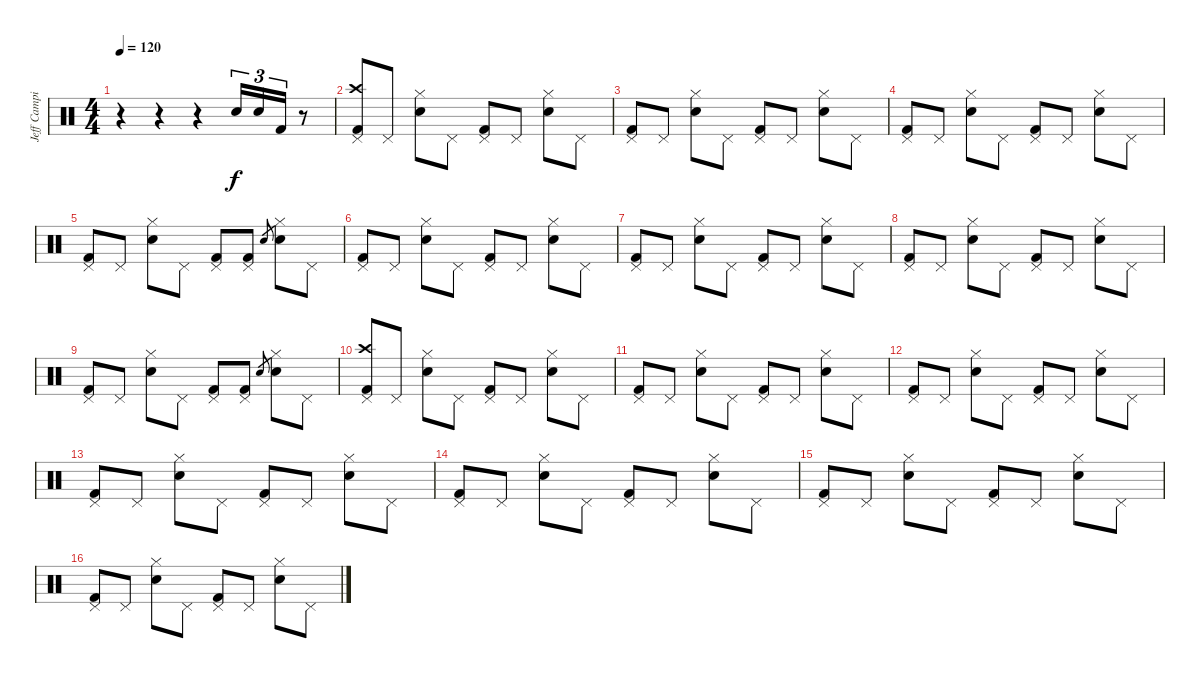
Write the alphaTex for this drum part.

\track ("Jeff Campitelli" "Jeff Campi") {instrument percussion}
\staff {score}
\articulation defaults
\ts (4 4)
\tempo 120
\clef neutral
\ks c
r.4{dy f} r.4 r.4 "Snare (hit) 2".16{tu (3 2)} "Snare (hit) 2".16{tu (3 2)} "Kick (hit) 2".16{tu (3 2)} r.8 |
("Crash high (hit)" "Pedal Hi-Hat (hit)" "Kick (hit) 2").8 "Pedal Hi-Hat (hit)".8 ("Hi-Hat (closed)" "Snare (hit) 2").8 "Pedal Hi-Hat (hit)".8 ("Pedal Hi-Hat (hit)" "Kick (hit) 2").8 "Pedal Hi-Hat (hit)".8 ("Hi-Hat (closed)" "Snare (hit) 2").8 "Pedal Hi-Hat (hit)".8 |
("Pedal Hi-Hat (hit)" "Kick (hit) 2").8 "Pedal Hi-Hat (hit)".8 ("Hi-Hat (closed)" "Snare (hit) 2").8 "Pedal Hi-Hat (hit)".8 ("Pedal Hi-Hat (hit)" "Kick (hit) 2").8 "Pedal Hi-Hat (hit)".8 ("Hi-Hat (closed)" "Snare (hit) 2").8 "Pedal Hi-Hat (hit)".8 |
("Pedal Hi-Hat (hit)" "Kick (hit) 2").8 "Pedal Hi-Hat (hit)".8 ("Hi-Hat (closed)" "Snare (hit) 2").8 "Pedal Hi-Hat (hit)".8 ("Pedal Hi-Hat (hit)" "Kick (hit) 2").8 "Pedal Hi-Hat (hit)".8 ("Hi-Hat (closed)" "Snare (hit) 2").8 "Pedal Hi-Hat (hit)".8 |
("Pedal Hi-Hat (hit)" "Kick (hit) 2").8 "Pedal Hi-Hat (hit)".8 ("Hi-Hat (closed)" "Snare (hit) 2").8 "Pedal Hi-Hat (hit)".8 ("Pedal Hi-Hat (hit)" "Kick (hit) 2").8 ("Pedal Hi-Hat (hit)" "Kick (hit) 2").8 "Snare (hit) 2".8{gr} ("Hi-Hat (closed)" "Snare (hit) 2").8 "Pedal Hi-Hat (hit)".8 |
("Pedal Hi-Hat (hit)" "Kick (hit) 2").8 "Pedal Hi-Hat (hit)".8 ("Hi-Hat (closed)" "Snare (hit) 2").8 "Pedal Hi-Hat (hit)".8 ("Pedal Hi-Hat (hit)" "Kick (hit) 2").8 "Pedal Hi-Hat (hit)".8 ("Hi-Hat (closed)" "Snare (hit) 2").8 "Pedal Hi-Hat (hit)".8 |
("Pedal Hi-Hat (hit)" "Kick (hit) 2").8 "Pedal Hi-Hat (hit)".8 ("Hi-Hat (closed)" "Snare (hit) 2").8 "Pedal Hi-Hat (hit)".8 ("Pedal Hi-Hat (hit)" "Kick (hit) 2").8 "Pedal Hi-Hat (hit)".8 ("Hi-Hat (closed)" "Snare (hit) 2").8 "Pedal Hi-Hat (hit)".8 |
("Pedal Hi-Hat (hit)" "Kick (hit) 2").8 "Pedal Hi-Hat (hit)".8 ("Hi-Hat (closed)" "Snare (hit) 2").8 "Pedal Hi-Hat (hit)".8 ("Pedal Hi-Hat (hit)" "Kick (hit) 2").8 "Pedal Hi-Hat (hit)".8 ("Hi-Hat (closed)" "Snare (hit) 2").8 "Pedal Hi-Hat (hit)".8 |
("Pedal Hi-Hat (hit)" "Kick (hit) 2").8 "Pedal Hi-Hat (hit)".8 ("Hi-Hat (closed)" "Snare (hit) 2").8 "Pedal Hi-Hat (hit)".8 ("Pedal Hi-Hat (hit)" "Kick (hit) 2").8 ("Pedal Hi-Hat (hit)" "Kick (hit) 2").8 "Snare (hit) 2".8{gr} ("Hi-Hat (closed)" "Snare (hit) 2").8 "Pedal Hi-Hat (hit)".8 |
("Crash high (hit)" "Pedal Hi-Hat (hit)" "Kick (hit) 2").8 "Pedal Hi-Hat (hit)".8 ("Hi-Hat (closed)" "Snare (hit) 2").8 "Pedal Hi-Hat (hit)".8 ("Pedal Hi-Hat (hit)" "Kick (hit) 2").8 "Pedal Hi-Hat (hit)".8 ("Hi-Hat (closed)" "Snare (hit) 2").8 "Pedal Hi-Hat (hit)".8 |
("Pedal Hi-Hat (hit)" "Kick (hit) 2").8 "Pedal Hi-Hat (hit)".8 ("Hi-Hat (closed)" "Snare (hit) 2").8 "Pedal Hi-Hat (hit)".8 ("Pedal Hi-Hat (hit)" "Kick (hit) 2").8 "Pedal Hi-Hat (hit)".8 ("Hi-Hat (closed)" "Snare (hit) 2").8 "Pedal Hi-Hat (hit)".8 |
("Pedal Hi-Hat (hit)" "Kick (hit) 2").8 "Pedal Hi-Hat (hit)".8 ("Hi-Hat (closed)" "Snare (hit) 2").8 "Pedal Hi-Hat (hit)".8 ("Pedal Hi-Hat (hit)" "Kick (hit) 2").8 "Pedal Hi-Hat (hit)".8 ("Hi-Hat (closed)" "Snare (hit) 2").8 "Pedal Hi-Hat (hit)".8 |
("Pedal Hi-Hat (hit)" "Kick (hit) 2").8 "Pedal Hi-Hat (hit)".8 ("Hi-Hat (closed)" "Snare (hit) 2").8 "Pedal Hi-Hat (hit)".8 ("Pedal Hi-Hat (hit)" "Kick (hit) 2").8 "Pedal Hi-Hat (hit)".8 ("Hi-Hat (closed)" "Snare (hit) 2").8 "Pedal Hi-Hat (hit)".8 |
("Pedal Hi-Hat (hit)" "Kick (hit) 2").8 "Pedal Hi-Hat (hit)".8 ("Hi-Hat (closed)" "Snare (hit) 2").8 "Pedal Hi-Hat (hit)".8 ("Pedal Hi-Hat (hit)" "Kick (hit) 2").8 "Pedal Hi-Hat (hit)".8 ("Hi-Hat (closed)" "Snare (hit) 2").8 "Pedal Hi-Hat (hit)".8 |
("Pedal Hi-Hat (hit)" "Kick (hit) 2").8 "Pedal Hi-Hat (hit)".8 ("Hi-Hat (closed)" "Snare (hit) 2").8 "Pedal Hi-Hat (hit)".8 ("Pedal Hi-Hat (hit)" "Kick (hit) 2").8 "Pedal Hi-Hat (hit)".8 ("Hi-Hat (closed)" "Snare (hit) 2").8 "Pedal Hi-Hat (hit)".8 |
("Pedal Hi-Hat (hit)" "Kick (hit) 2").8 "Pedal Hi-Hat (hit)".8 ("Hi-Hat (closed)" "Snare (hit) 2").8 "Pedal Hi-Hat (hit)".8 ("Pedal Hi-Hat (hit)" "Kick (hit) 2").8 "Pedal Hi-Hat (hit)".8 ("Hi-Hat (closed)" "Snare (hit) 2").8 "Pedal Hi-Hat (hit)".8
